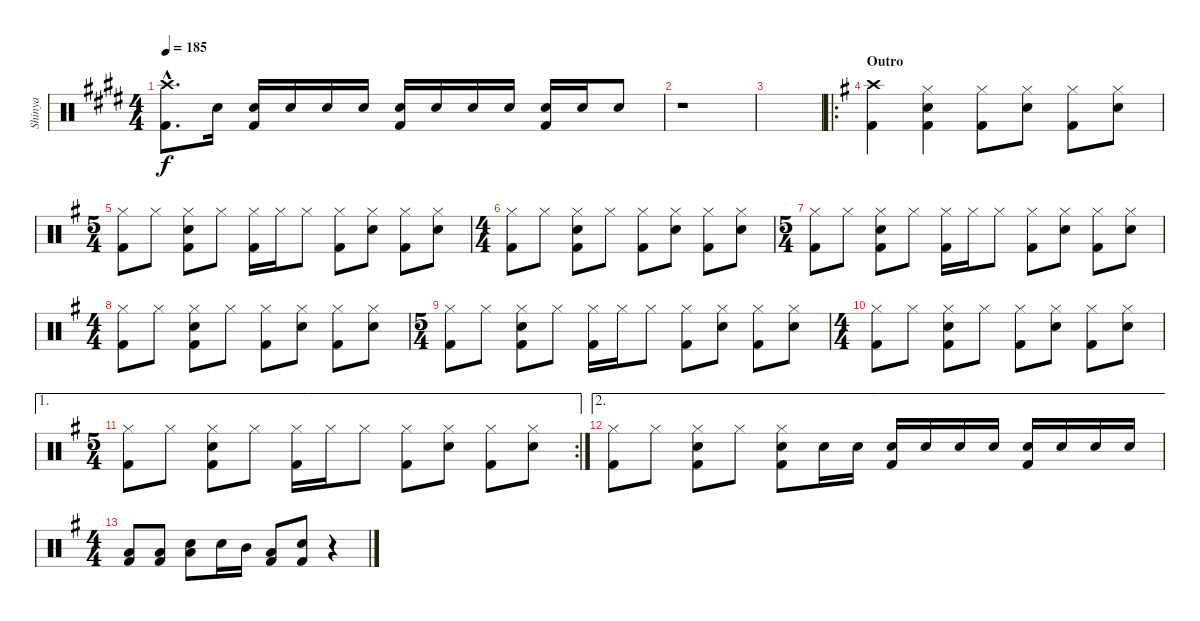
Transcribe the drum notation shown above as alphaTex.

\track ("Shinya" "Shinya") {instrument percussion}
\staff {score}
\articulation defaults
\ts (4 4)
\tempo 185
\clef neutral
\ks e
("Crash high (hit)"{hac} "Kick (hit) 2"{hac}).8{d dy f} "Snare (hit) 2".16 ("Snare (hit) 2" "Kick (hit) 2").16 "Snare (hit) 2".16 "Snare (hit) 2".16 "Snare (hit) 2".16 ("Snare (hit) 2" "Kick (hit) 2").16 "Snare (hit) 2".16 "Snare (hit) 2".16 "Snare (hit) 2".16 ("Snare (hit) 2" "Kick (hit) 2").16 "Snare (hit) 2".16 "Snare (hit) 2".8 |
r.1 |
|
\ro
\section ("" "Outro")
\ks g
("Crash high (hit)" "Kick (hit) 2").4 ("Hi-Hat (closed)" "Snare (hit) 2" "Kick (hit) 2").4 ("Hi-Hat (closed)" "Kick (hit) 2").8 ("Hi-Hat (closed)" "Snare (hit) 2").8 ("Hi-Hat (closed)" "Kick (hit) 2").8 ("Hi-Hat (closed)" "Snare (hit) 2").8 |
\ts (5 4)
("Hi-Hat (closed)" "Kick (hit) 2").8 "Hi-Hat (closed)".8 ("Hi-Hat (closed)" "Snare (hit) 2" "Kick (hit) 2").8 "Hi-Hat (closed)".8 ("Hi-Hat (closed)" "Kick (hit) 2").16 "Hi-Hat (closed)".16 "Hi-Hat (closed)".8 ("Hi-Hat (closed)" "Kick (hit) 2").8 ("Hi-Hat (closed)" "Snare (hit) 2").8 ("Hi-Hat (closed)" "Kick (hit) 2").8 ("Hi-Hat (closed)" "Snare (hit) 2").8 |
\ts (4 4)
("Hi-Hat (closed)" "Kick (hit) 2").8 "Hi-Hat (closed)".8 ("Hi-Hat (closed)" "Snare (hit) 2" "Kick (hit) 2").8 "Hi-Hat (closed)".8 ("Hi-Hat (closed)" "Kick (hit) 2").8 ("Hi-Hat (closed)" "Snare (hit) 2").8 ("Hi-Hat (closed)" "Kick (hit) 2").8 ("Hi-Hat (closed)" "Snare (hit) 2").8 |
\ts (5 4)
("Hi-Hat (closed)" "Kick (hit) 2").8 "Hi-Hat (closed)".8 ("Hi-Hat (closed)" "Snare (hit) 2" "Kick (hit) 2").8 "Hi-Hat (closed)".8 ("Hi-Hat (closed)" "Kick (hit) 2").16 "Hi-Hat (closed)".16 "Hi-Hat (closed)".8 ("Hi-Hat (closed)" "Kick (hit) 2").8 ("Hi-Hat (closed)" "Snare (hit) 2").8 ("Hi-Hat (closed)" "Kick (hit) 2").8 ("Hi-Hat (closed)" "Snare (hit) 2").8 |
\ts (4 4)
("Hi-Hat (closed)" "Kick (hit) 2").8 "Hi-Hat (closed)".8 ("Hi-Hat (closed)" "Snare (hit) 2" "Kick (hit) 2").8 "Hi-Hat (closed)".8 ("Hi-Hat (closed)" "Kick (hit) 2").8 ("Hi-Hat (closed)" "Snare (hit) 2").8 ("Hi-Hat (closed)" "Kick (hit) 2").8 ("Hi-Hat (closed)" "Snare (hit) 2").8 |
\ts (5 4)
("Hi-Hat (closed)" "Kick (hit) 2").8 "Hi-Hat (closed)".8 ("Hi-Hat (closed)" "Snare (hit) 2" "Kick (hit) 2").8 "Hi-Hat (closed)".8 ("Hi-Hat (closed)" "Kick (hit) 2").16 "Hi-Hat (closed)".16 "Hi-Hat (closed)".8 ("Hi-Hat (closed)" "Kick (hit) 2").8 ("Hi-Hat (closed)" "Snare (hit) 2").8 ("Hi-Hat (closed)" "Kick (hit) 2").8 ("Hi-Hat (closed)" "Snare (hit) 2").8 |
\ts (4 4)
("Hi-Hat (closed)" "Kick (hit) 2").8 "Hi-Hat (closed)".8 ("Hi-Hat (closed)" "Snare (hit) 2" "Kick (hit) 2").8 "Hi-Hat (closed)".8 ("Hi-Hat (closed)" "Kick (hit) 2").8 ("Hi-Hat (closed)" "Snare (hit) 2").8 ("Hi-Hat (closed)" "Kick (hit) 2").8 ("Hi-Hat (closed)" "Snare (hit) 2").8 |
\ae 1
\rc 2
\ts (5 4)
("Hi-Hat (closed)" "Kick (hit) 2").8 "Hi-Hat (closed)".8 ("Hi-Hat (closed)" "Snare (hit) 2" "Kick (hit) 2").8 "Hi-Hat (closed)".8 ("Hi-Hat (closed)" "Kick (hit) 2").16 "Hi-Hat (closed)".16 "Hi-Hat (closed)".8 ("Hi-Hat (closed)" "Kick (hit) 2").8 ("Hi-Hat (closed)" "Snare (hit) 2").8 ("Hi-Hat (closed)" "Kick (hit) 2").8 ("Hi-Hat (closed)" "Snare (hit) 2").8 |
\ae 2
("Hi-Hat (closed)" "Kick (hit) 2").8 "Hi-Hat (closed)".8 ("Hi-Hat (closed)" "Snare (hit) 2" "Kick (hit) 2").8 "Hi-Hat (closed)".8 ("Hi-Hat (closed)" "Snare (hit) 2" "Kick (hit) 2").8 "Snare (hit) 2".16 "Snare (hit) 2".16 ("Snare (hit) 2" "Kick (hit) 2").16 "Snare (hit) 2".16 "Snare (hit) 2".16 "Snare (hit) 2".16 ("Snare (hit) 2" "Kick (hit) 2").16 "Snare (hit) 2".16 "Snare (hit) 2".16 "Snare (hit) 2".16 |
\ts (4 4)
("Low Floor Tom (hit)" "Kick (hit) 2").8 ("Low Floor Tom (hit)" "Kick (hit) 2").8 ("Snare (hit) 2" "Low Floor Tom (hit)").8 "Snare (hit) 2".16 "Mid Tom (hit)".16 ("Low Floor Tom (hit)" "Kick (hit) 2").8 ("Snare (hit) 2" "Kick (hit) 2").8 r.4
